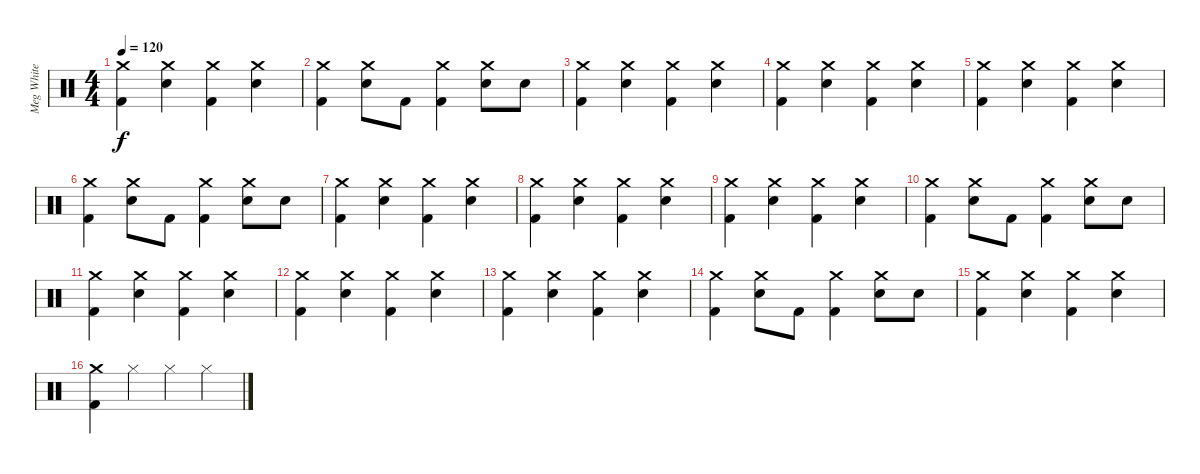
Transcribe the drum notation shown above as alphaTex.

\track ("Meg White" "Meg White") {instrument percussion}
\staff {score}
\articulation defaults
\ts (4 4)
\tempo 120
\clef neutral
\ks c
("Crash medium (hit)" "Kick (hit) 2").4{dy f} ("Crash medium (hit)" "Snare (hit) 2").4 ("Crash medium (hit)" "Kick (hit) 2").4 ("Crash medium (hit)" "Snare (hit) 2").4 |
("Crash medium (hit)" "Kick (hit) 2").4 ("Crash medium (hit)" "Snare (hit) 2").8 "Kick (hit) 2".8 ("Crash medium (hit)" "Kick (hit) 2").4 ("Crash medium (hit)" "Snare (hit) 2").8 "Snare (hit) 2".8 |
("Crash medium (hit)" "Kick (hit) 2").4 ("Crash medium (hit)" "Snare (hit) 2").4 ("Crash medium (hit)" "Kick (hit) 2").4 ("Crash medium (hit)" "Snare (hit) 2").4 |
("Crash medium (hit)" "Kick (hit) 2").4 ("Crash medium (hit)" "Snare (hit) 2").4 ("Crash medium (hit)" "Kick (hit) 2").4 ("Crash medium (hit)" "Snare (hit) 2").4 |
("Crash medium (hit)" "Kick (hit) 2").4 ("Crash medium (hit)" "Snare (hit) 2").4 ("Crash medium (hit)" "Kick (hit) 2").4 ("Crash medium (hit)" "Snare (hit) 2").4 |
("Crash medium (hit)" "Kick (hit) 2").4 ("Crash medium (hit)" "Snare (hit) 2").8 "Kick (hit) 2".8 ("Crash medium (hit)" "Kick (hit) 2").4 ("Crash medium (hit)" "Snare (hit) 2").8 "Snare (hit) 2".8 |
("Crash medium (hit)" "Kick (hit) 2").4 ("Crash medium (hit)" "Snare (hit) 2").4 ("Crash medium (hit)" "Kick (hit) 2").4 ("Crash medium (hit)" "Snare (hit) 2").4 |
("Crash medium (hit)" "Kick (hit) 2").4 ("Crash medium (hit)" "Snare (hit) 2").4 ("Crash medium (hit)" "Kick (hit) 2").4 ("Crash medium (hit)" "Snare (hit) 2").4 |
("Crash medium (hit)" "Kick (hit) 2").4 ("Crash medium (hit)" "Snare (hit) 2").4 ("Crash medium (hit)" "Kick (hit) 2").4 ("Crash medium (hit)" "Snare (hit) 2").4 |
("Crash medium (hit)" "Kick (hit) 2").4 ("Crash medium (hit)" "Snare (hit) 2").8 "Kick (hit) 2".8 ("Crash medium (hit)" "Kick (hit) 2").4 ("Crash medium (hit)" "Snare (hit) 2").8 "Snare (hit) 2".8 |
("Crash medium (hit)" "Kick (hit) 2").4 ("Crash medium (hit)" "Snare (hit) 2").4 ("Crash medium (hit)" "Kick (hit) 2").4 ("Crash medium (hit)" "Snare (hit) 2").4 |
("Crash medium (hit)" "Kick (hit) 2").4 ("Crash medium (hit)" "Snare (hit) 2").4 ("Crash medium (hit)" "Kick (hit) 2").4 ("Crash medium (hit)" "Snare (hit) 2").4 |
("Crash medium (hit)" "Kick (hit) 2").4 ("Crash medium (hit)" "Snare (hit) 2").4 ("Crash medium (hit)" "Kick (hit) 2").4 ("Crash medium (hit)" "Snare (hit) 2").4 |
("Crash medium (hit)" "Kick (hit) 2").4 ("Crash medium (hit)" "Snare (hit) 2").8 "Kick (hit) 2".8 ("Crash medium (hit)" "Kick (hit) 2").4 ("Crash medium (hit)" "Snare (hit) 2").8 "Snare (hit) 2".8 |
("Crash medium (hit)" "Kick (hit) 2").4 ("Crash medium (hit)" "Snare (hit) 2").4 ("Crash medium (hit)" "Kick (hit) 2").4 ("Crash medium (hit)" "Snare (hit) 2").4 |
("Crash medium (hit)" "Kick (hit) 2").4 "Hi-Hat (closed)".4 "Hi-Hat (closed)".4 "Hi-Hat (closed)".4
